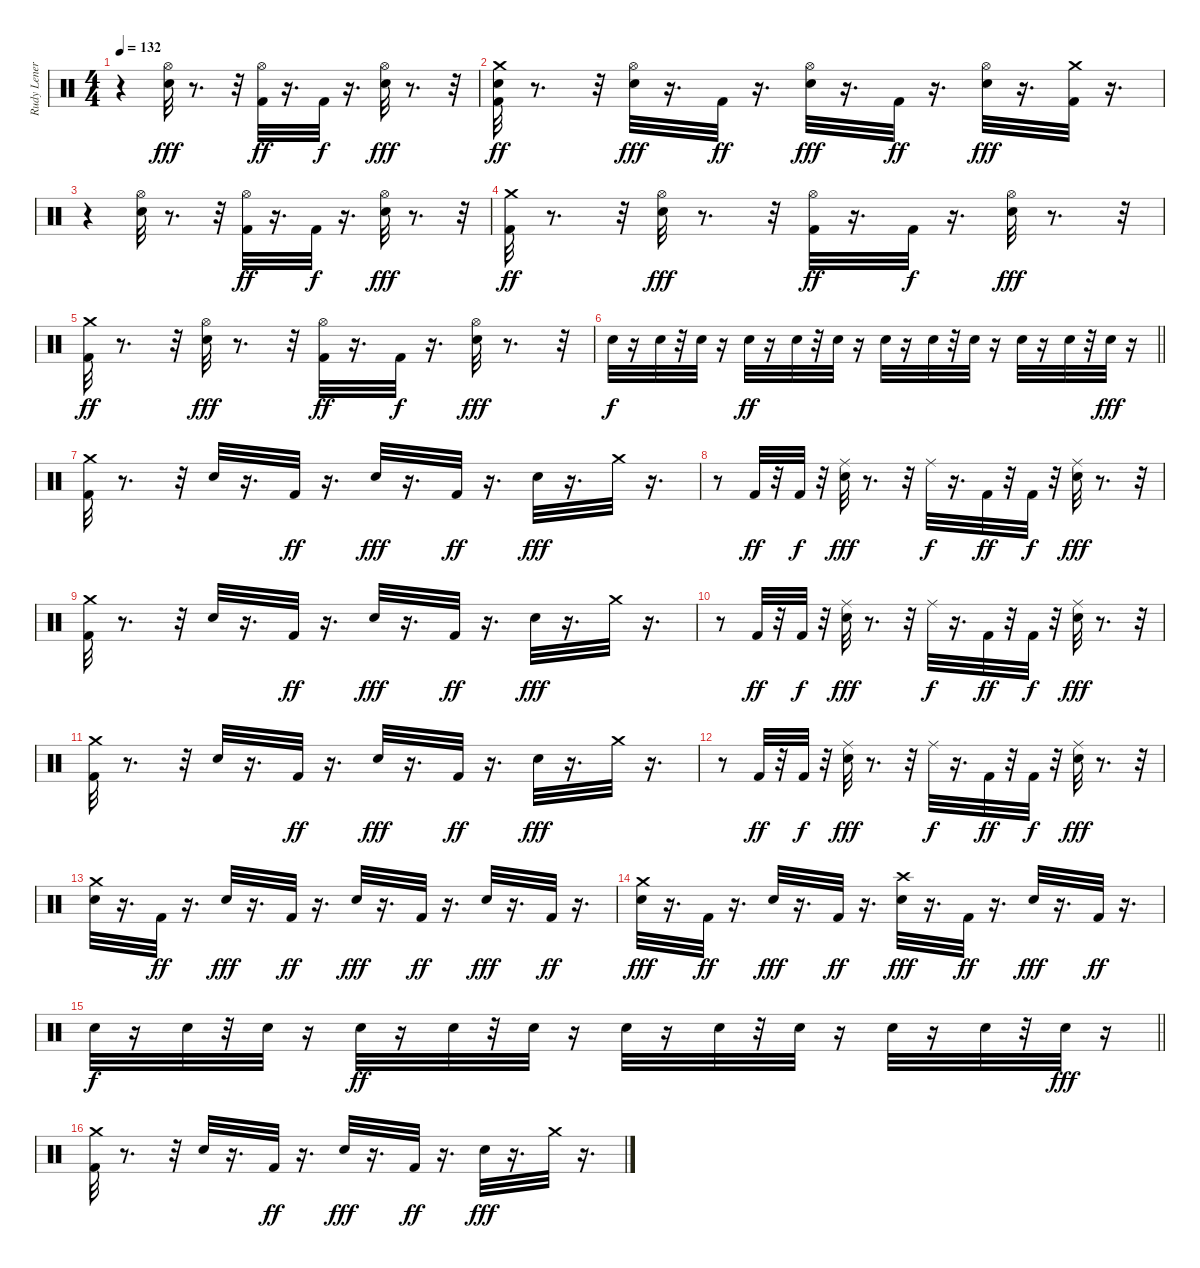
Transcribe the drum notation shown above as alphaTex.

\track ("Rudy Leners" "Rudy Lener") {instrument percussion}
\staff {score}
\articulation defaults
\ts (4 4)
\tempo 132
\clef neutral
\ks c
r.4{dy fff} ("Hi-Hat (open)" "Snare (hit) 2").32 r.8{d} r.32 ("Hi-Hat (open)" "Kick (hit) 2").32{dy ff} r.16{d} "Kick (hit) 2".32{dy f} r.16{d} ("Hi-Hat (open)" "Snare (hit) 2").32{dy fff} r.8{d} r.32 |
("Snare (hit) 2" "Crash medium (hit)" "Kick (hit) 2").32{dy ff} r.8{d} r.32 ("Hi-Hat (open)" "Snare (hit) 2").32{dy fff} r.16{d} "Kick (hit) 2".32{dy ff} r.16{d} ("Hi-Hat (open)" "Snare (hit) 2").32{dy fff} r.16{d} "Kick (hit) 2".32{dy ff} r.16{d} ("Hi-Hat (open)" "Snare (hit) 2").32{dy fff} r.16{d} ("Kick (hit) 2" "Crash medium (hit)").32 r.16{d} |
r.4 ("Hi-Hat (open)" "Snare (hit) 2").32 r.8{d} r.32 ("Hi-Hat (open)" "Kick (hit) 2").32{dy ff} r.16{d} "Kick (hit) 2".32{dy f} r.16{d} ("Hi-Hat (open)" "Snare (hit) 2").32{dy fff} r.8{d} r.32 |
("Crash medium (hit)" "Kick (hit) 2").32{dy ff} r.8{d} r.32 ("Hi-Hat (open)" "Snare (hit) 2").32{dy fff} r.8{d} r.32 ("Hi-Hat (open)" "Kick (hit) 2").32{dy ff} r.16{d} "Kick (hit) 2".32{dy f} r.16{d} ("Hi-Hat (open)" "Snare (hit) 2").32{dy fff} r.8{d} r.32 |
("Crash medium (hit)" "Kick (hit) 2").32{dy ff} r.8{d} r.32 ("Hi-Hat (open)" "Snare (hit) 2").32{dy fff} r.8{d} r.32 ("Hi-Hat (open)" "Kick (hit) 2").32{dy ff} r.16{d} "Kick (hit) 2".32{dy f} r.16{d} ("Hi-Hat (open)" "Snare (hit) 2").32{dy fff} r.8{d} r.32 |
\barLineRight lightlight "Snare (hit) 2".32{dy f}
r.16 "Snare (hit) 2".32 r.32 "Snare (hit) 2".32 r.16 "Snare (hit) 2".32{dy ff} r.16 "Snare (hit) 2".32 r.32 "Snare (hit) 2".32 r.16 "Snare (hit) 2".32 r.16 "Snare (hit) 2".32 r.32 "Snare (hit) 2".32 r.16 "Snare (hit) 2".32 r.16 "Snare (hit) 2".32 r.32 "Snare (hit) 2".32{dy fff} r.16 |
("Kick (hit) 2" "Crash medium (hit)").32 r.8{d} r.32 "Snare (hit) 2".32 r.16{d} "Kick (hit) 2".32{dy ff} r.16{d} "Snare (hit) 2".32{dy fff} r.16{d} "Kick (hit) 2".32{dy ff} r.16{d} "Snare (hit) 2".32{dy fff} r.16{d} "Crash medium (hit)".32 r.16{d} |
r.8 "Kick (hit) 2".32{dy ff} r.32 "Kick (hit) 2".32{dy f} r.32 ("Ride (middle)" "Snare (hit) 2").32{dy fff} r.8{d} r.32 "Ride (middle)".32{dy f} r.16{d} "Kick (hit) 2".32{dy ff} r.32 "Kick (hit) 2".32{dy f} r.32 ("Ride (middle)" "Snare (hit) 2").32{dy fff} r.8{d} r.32 |
("Kick (hit) 2" "Crash medium (hit)").32 r.8{d} r.32 "Snare (hit) 2".32 r.16{d} "Kick (hit) 2".32{dy ff} r.16{d} "Snare (hit) 2".32{dy fff} r.16{d} "Kick (hit) 2".32{dy ff} r.16{d} "Snare (hit) 2".32{dy fff} r.16{d} "Crash medium (hit)".32 r.16{d} |
r.8 "Kick (hit) 2".32{dy ff} r.32 "Kick (hit) 2".32{dy f} r.32 ("Ride (middle)" "Snare (hit) 2").32{dy fff} r.8{d} r.32 "Ride (middle)".32{dy f} r.16{d} "Kick (hit) 2".32{dy ff} r.32 "Kick (hit) 2".32{dy f} r.32 ("Ride (middle)" "Snare (hit) 2").32{dy fff} r.8{d} r.32 |
("Kick (hit) 2" "Crash medium (hit)").32 r.8{d} r.32 "Snare (hit) 2".32 r.16{d} "Kick (hit) 2".32{dy ff} r.16{d} "Snare (hit) 2".32{dy fff} r.16{d} "Kick (hit) 2".32{dy ff} r.16{d} "Snare (hit) 2".32{dy fff} r.16{d} "Crash medium (hit)".32 r.16{d} |
r.8 "Kick (hit) 2".32{dy ff} r.32 "Kick (hit) 2".32{dy f} r.32 ("Ride (middle)" "Snare (hit) 2").32{dy fff} r.8{d} r.32 "Ride (middle)".32{dy f} r.16{d} "Kick (hit) 2".32{dy ff} r.32 "Kick (hit) 2".32{dy f} r.32 ("Ride (middle)" "Snare (hit) 2").32{dy fff} r.8{d} r.32 |
("Crash medium (hit)" "Snare (hit) 2").32 r.16{d} "Kick (hit) 2".32{dy ff} r.16{d} "Snare (hit) 2".32{dy fff} r.16{d} "Kick (hit) 2".32{dy ff} r.16{d} "Snare (hit) 2".32{dy fff} r.16{d} "Kick (hit) 2".32{dy ff} r.16{d} "Snare (hit) 2".32{dy fff} r.16{d} "Kick (hit) 2".32{dy ff} r.16{d} |
("Snare (hit) 2" "Crash medium (hit)").32{dy fff} r.16{d} "Kick (hit) 2".32{dy ff} r.16{d} "Snare (hit) 2".32{dy fff} r.16{d} "Kick (hit) 2".32{dy ff} r.16{d} ("Crash high (hit)" "Snare (hit) 2").32{dy fff} r.16{d} "Kick (hit) 2".32{dy ff} r.16{d} "Snare (hit) 2".32{dy fff} r.16{d} "Kick (hit) 2".32{dy ff} r.16{d} |
\barLineRight lightlight "Snare (hit) 2".32{dy f}
r.16 "Snare (hit) 2".32 r.32 "Snare (hit) 2".32 r.16 "Snare (hit) 2".32{dy ff} r.16 "Snare (hit) 2".32 r.32 "Snare (hit) 2".32 r.16 "Snare (hit) 2".32 r.16 "Snare (hit) 2".32 r.32 "Snare (hit) 2".32 r.16 "Snare (hit) 2".32 r.16 "Snare (hit) 2".32 r.32 "Snare (hit) 2".32{dy fff} r.16 |
("Kick (hit) 2" "Crash medium (hit)").32 r.8{d} r.32 "Snare (hit) 2".32 r.16{d} "Kick (hit) 2".32{dy ff} r.16{d} "Snare (hit) 2".32{dy fff} r.16{d} "Kick (hit) 2".32{dy ff} r.16{d} "Snare (hit) 2".32{dy fff} r.16{d} "Crash medium (hit)".32 r.16{d}
